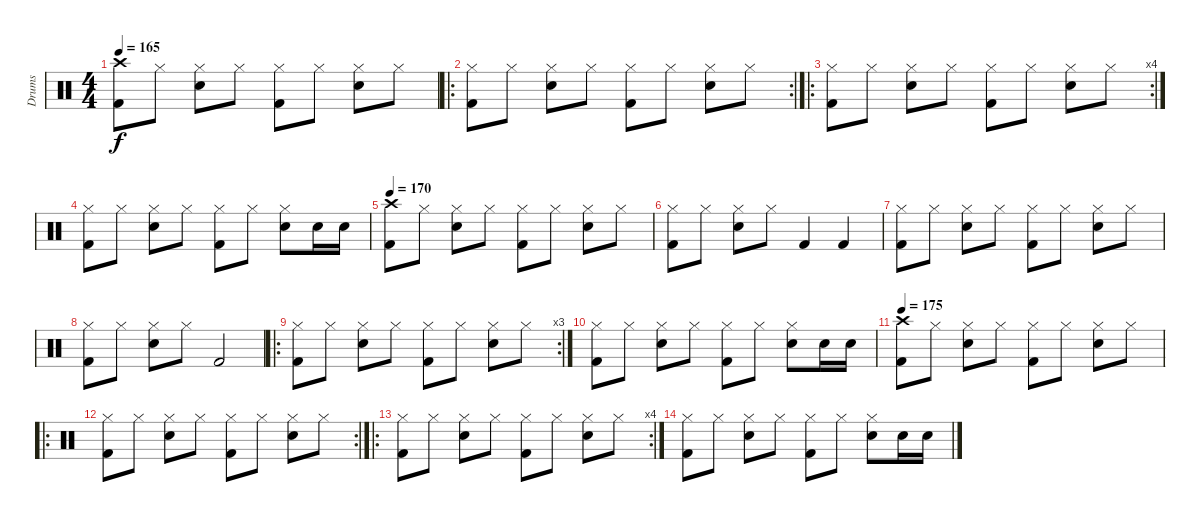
\track ("Drums" "Drums") {instrument percussion}
\staff {score}
\articulation defaults
\ts (4 4)
\tempo 165
\clef neutral
\ks c
("Crash high (hit)" "Kick (hit) 2").8{dy f} "Hi-Hat (closed)".8 ("Hi-Hat (closed)" "Snare (hit) 2").8 "Hi-Hat (closed)".8 ("Hi-Hat (closed)" "Kick (hit) 2").8 "Hi-Hat (closed)".8 ("Hi-Hat (closed)" "Snare (hit) 2").8 "Hi-Hat (closed)".8 |
\ro
\rc 2
("Hi-Hat (closed)" "Kick (hit) 2").8 "Hi-Hat (closed)".8 ("Hi-Hat (closed)" "Snare (hit) 2").8 "Hi-Hat (closed)".8 ("Hi-Hat (closed)" "Kick (hit) 2").8 "Hi-Hat (closed)".8 ("Hi-Hat (closed)" "Snare (hit) 2").8 "Hi-Hat (closed)".8 |
\ro
\rc 4
("Hi-Hat (closed)" "Kick (hit) 2").8 "Hi-Hat (closed)".8 ("Hi-Hat (closed)" "Snare (hit) 2").8 "Hi-Hat (closed)".8 ("Hi-Hat (closed)" "Kick (hit) 2").8 "Hi-Hat (closed)".8 ("Hi-Hat (closed)" "Snare (hit) 2").8 "Hi-Hat (closed)".8 |
("Hi-Hat (closed)" "Kick (hit) 2").8 "Hi-Hat (closed)".8 ("Hi-Hat (closed)" "Snare (hit) 2").8 "Hi-Hat (closed)".8 ("Hi-Hat (closed)" "Kick (hit) 2").8 "Hi-Hat (closed)".8 ("Hi-Hat (closed)" "Snare (hit) 2").8 "Snare (hit) 2".16 "Snare (hit) 2".16 |
\tempo 170
("Crash high (hit)" "Kick (hit) 2").8 "Hi-Hat (closed)".8 ("Hi-Hat (closed)" "Snare (hit) 2").8 "Hi-Hat (closed)".8 ("Hi-Hat (closed)" "Kick (hit) 2").8 "Hi-Hat (closed)".8 ("Hi-Hat (closed)" "Snare (hit) 2").8 "Hi-Hat (closed)".8 |
("Hi-Hat (closed)" "Kick (hit) 2").8 "Hi-Hat (closed)".8 ("Hi-Hat (closed)" "Snare (hit) 2").8 "Hi-Hat (closed)".8 "Kick (hit) 2".4 "Kick (hit) 2".4 |
("Hi-Hat (closed)" "Kick (hit) 2").8 "Hi-Hat (closed)".8 ("Hi-Hat (closed)" "Snare (hit) 2").8 "Hi-Hat (closed)".8 ("Hi-Hat (closed)" "Kick (hit) 2").8 "Hi-Hat (closed)".8 ("Hi-Hat (closed)" "Snare (hit) 2").8 "Hi-Hat (closed)".8 |
("Hi-Hat (closed)" "Kick (hit) 2").8 "Hi-Hat (closed)".8 ("Hi-Hat (closed)" "Snare (hit) 2").8 "Hi-Hat (closed)".8 "Kick (hit) 2".2 |
\ro
\rc 3
("Hi-Hat (closed)" "Kick (hit) 2").8 "Hi-Hat (closed)".8 ("Hi-Hat (closed)" "Snare (hit) 2").8 "Hi-Hat (closed)".8 ("Hi-Hat (closed)" "Kick (hit) 2").8 "Hi-Hat (closed)".8 ("Hi-Hat (closed)" "Snare (hit) 2").8 "Hi-Hat (closed)".8 |
("Hi-Hat (closed)" "Kick (hit) 2").8 "Hi-Hat (closed)".8 ("Hi-Hat (closed)" "Snare (hit) 2").8 "Hi-Hat (closed)".8 ("Hi-Hat (closed)" "Kick (hit) 2").8 "Hi-Hat (closed)".8 ("Hi-Hat (closed)" "Snare (hit) 2").8 "Snare (hit) 2".16 "Snare (hit) 2".16 |
\tempo 175
("Crash high (hit)" "Kick (hit) 2").8 "Hi-Hat (closed)".8 ("Hi-Hat (closed)" "Snare (hit) 2").8 "Hi-Hat (closed)".8 ("Hi-Hat (closed)" "Kick (hit) 2").8 "Hi-Hat (closed)".8 ("Hi-Hat (closed)" "Snare (hit) 2").8 "Hi-Hat (closed)".8 |
\ro
\rc 2
("Hi-Hat (closed)" "Kick (hit) 2").8 "Hi-Hat (closed)".8 ("Hi-Hat (closed)" "Snare (hit) 2").8 "Hi-Hat (closed)".8 ("Hi-Hat (closed)" "Kick (hit) 2").8 "Hi-Hat (closed)".8 ("Hi-Hat (closed)" "Snare (hit) 2").8 "Hi-Hat (closed)".8 |
\ro
\rc 4
("Hi-Hat (closed)" "Kick (hit) 2").8 "Hi-Hat (closed)".8 ("Hi-Hat (closed)" "Snare (hit) 2").8 "Hi-Hat (closed)".8 ("Hi-Hat (closed)" "Kick (hit) 2").8 "Hi-Hat (closed)".8 ("Hi-Hat (closed)" "Snare (hit) 2").8 "Hi-Hat (closed)".8 |
("Hi-Hat (closed)" "Kick (hit) 2").8 "Hi-Hat (closed)".8 ("Hi-Hat (closed)" "Snare (hit) 2").8 "Hi-Hat (closed)".8 ("Hi-Hat (closed)" "Kick (hit) 2").8 "Hi-Hat (closed)".8 ("Hi-Hat (closed)" "Snare (hit) 2").8 "Snare (hit) 2".16 "Snare (hit) 2".16
